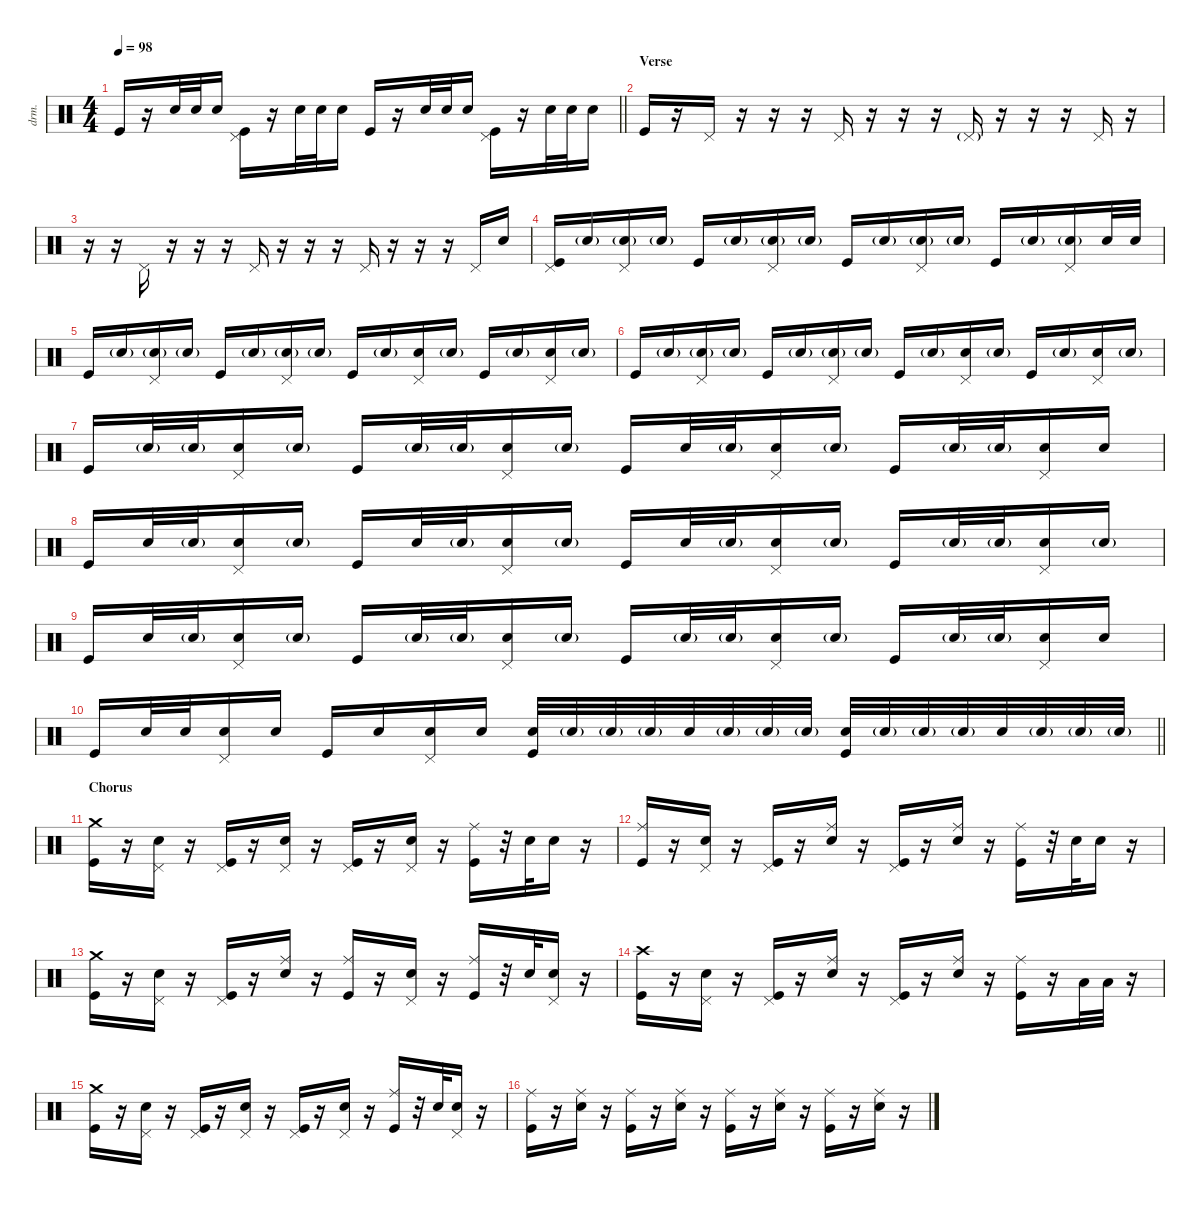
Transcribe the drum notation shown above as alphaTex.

\defaultSystemsLayout 4
\hideDynamics
\bracketExtendMode nobrackets
\otherSystemsTrackNameOrientation horizontal
\track ("Duris Maxwell" "drm.") {instrument percussion}
\staff {score}
\articulation defaults
\ts (4 4)
\tempo 98
\clef neutral
\barLineRight lightlight
\ks c "Kick (hit)".16{dy f beam Up}
r.16{beam Up} "Snare (hit) 2".32{beam Up} "Snare (hit) 2".32{beam Up} "Snare (hit) 2".16{beam Up} ("Pedal Hi-Hat (hit)" "Kick (hit)").16{beam Down} r.16{beam Down} "Snare (hit) 2".32{beam Down} "Snare (hit) 2".32{beam Down} "Snare (hit) 2".16{beam Down} "Kick (hit)".16{beam Up} r.16{beam Up} "Snare (hit) 2".32{beam Up} "Snare (hit) 2".32{beam Up} "Snare (hit) 2".16{beam Up} ("Pedal Hi-Hat (hit)" "Kick (hit)").16{beam Down} r.16{beam Down} "Snare (hit) 2".32{beam Down} "Snare (hit) 2".32{beam Down} "Snare (hit) 2".16{beam Down} |
\section ("" "Verse")
"Kick (hit)".16{beam Up} r.16{beam Up} "Pedal Hi-Hat (hit)".16{beam Up} r.16{beam Up} r.16{beam Up} r.16{beam Up} "Pedal Hi-Hat (hit)".16{beam Up} r.16{beam Up} r.16{beam Up} r.16{beam Up} "Pedal Hi-Hat (hit)"{g}.16{beam Up} r.16{beam Up} r.16{beam Up} r.16{beam Up} "Pedal Hi-Hat (hit)".16{beam Up} r.16{beam Up} |
r.16{beam Down} r.16{beam Down} "Pedal Hi-Hat (hit)".16{beam Up} r.16{beam Up} r.16{beam Up} r.16{beam Up} "Pedal Hi-Hat (hit)".16{beam Up} r.16{beam Up} r.16{beam Up} r.16{beam Up} "Pedal Hi-Hat (hit)".16{beam Up} r.16{beam Up} r.16{beam Up} r.16{beam Up} "Pedal Hi-Hat (hit)".16{beam Up} "Snare (hit) 2".16{beam Up} |
("Pedal Hi-Hat (hit)" "Kick (hit)").16{beam Up} "Snare (hit) 2"{g}.16{beam Up} ("Pedal Hi-Hat (hit)" "Snare (hit) 2"{g}).16{beam Up} "Snare (hit) 2"{g}.16{beam Up} "Kick (hit)".16{beam Up} "Snare (hit) 2"{g}.16{beam Up} ("Pedal Hi-Hat (hit)" "Snare (hit) 2"{g}).16{beam Up} "Snare (hit) 2"{g}.16{beam Up} "Kick (hit)".16{beam Up} "Snare (hit) 2"{g}.16{beam Up} ("Pedal Hi-Hat (hit)" "Snare (hit) 2"{g}).16{beam Up} "Snare (hit) 2"{g}.16{beam Up} "Kick (hit)".16{beam Up} "Snare (hit) 2"{g}.16{beam Up} ("Pedal Hi-Hat (hit)" "Snare (hit) 2"{g}).16{beam Up} "Snare (hit) 2".32{beam Up} "Snare (hit) 2".32{beam Up} |
"Kick (hit)".16{beam Up} "Snare (hit) 2"{g}.16{beam Up} ("Pedal Hi-Hat (hit)" "Snare (hit) 2"{g}).16{beam Up} "Snare (hit) 2"{g}.16{beam Up} "Kick (hit)".16{beam Up} "Snare (hit) 2"{g}.16{beam Up} ("Pedal Hi-Hat (hit)" "Snare (hit) 2"{g}).16{beam Up} "Snare (hit) 2"{g}.16{beam Up} "Kick (hit)".16{beam Up} "Snare (hit) 2"{g}.16{beam Up} ("Pedal Hi-Hat (hit)" "Snare (hit) 2").16{beam Up} "Snare (hit) 2"{g}.16{beam Up} "Kick (hit)".16{beam Up} "Snare (hit) 2"{g}.16{beam Up} ("Pedal Hi-Hat (hit)" "Snare (hit) 2").16{beam Up} "Snare (hit) 2"{g}.16{beam Up} |
"Kick (hit)".16{beam Up} "Snare (hit) 2"{g}.16{beam Up} ("Pedal Hi-Hat (hit)" "Snare (hit) 2"{g}).16{beam Up} "Snare (hit) 2"{g}.16{beam Up} "Kick (hit)".16{beam Up} "Snare (hit) 2"{g}.16{beam Up} ("Pedal Hi-Hat (hit)" "Snare (hit) 2"{g}).16{beam Up} "Snare (hit) 2"{g}.16{beam Up} "Kick (hit)".16{beam Up} "Snare (hit) 2"{g}.16{beam Up} ("Pedal Hi-Hat (hit)" "Snare (hit) 2").16{beam Up} "Snare (hit) 2"{g}.16{beam Up} "Kick (hit)".16{beam Up} "Snare (hit) 2"{g}.16{beam Up} ("Pedal Hi-Hat (hit)" "Snare (hit) 2").16{beam Up} "Snare (hit) 2"{g}.16{beam Up} |
"Kick (hit)".16{beam Up} "Snare (hit) 2"{g}.32{beam Up} "Snare (hit) 2"{g}.32{beam Up} ("Pedal Hi-Hat (hit)" "Snare (hit) 2").16{beam Up} "Snare (hit) 2"{g}.16{beam Up} "Kick (hit)".16{beam Up} "Snare (hit) 2"{g}.32{beam Up} "Snare (hit) 2"{g}.32{beam Up} ("Pedal Hi-Hat (hit)" "Snare (hit) 2").16{beam Up} "Snare (hit) 2"{g}.16{beam Up} "Kick (hit)".16{beam Up} "Snare (hit) 2".32{beam Up} "Snare (hit) 2"{g}.32{beam Up} ("Pedal Hi-Hat (hit)" "Snare (hit) 2").16{beam Up} "Snare (hit) 2"{g}.16{beam Up} "Kick (hit)".16{beam Up} "Snare (hit) 2"{g}.32{beam Up} "Snare (hit) 2"{g}.32{beam Up} ("Pedal Hi-Hat (hit)" "Snare (hit) 2").16{beam Up} "Snare (hit) 2".16{beam Up} |
"Kick (hit)".16{beam Up} "Snare (hit) 2".32{beam Up} "Snare (hit) 2"{g}.32{beam Up} ("Pedal Hi-Hat (hit)" "Snare (hit) 2").16{beam Up} "Snare (hit) 2"{g}.16{beam Up} "Kick (hit)".16{beam Up} "Snare (hit) 2".32{beam Up} "Snare (hit) 2"{g}.32{beam Up} ("Pedal Hi-Hat (hit)" "Snare (hit) 2").16{beam Up} "Snare (hit) 2"{g}.16{beam Up} "Kick (hit)".16{beam Up} "Snare (hit) 2".32{beam Up} "Snare (hit) 2"{g}.32{beam Up} ("Pedal Hi-Hat (hit)" "Snare (hit) 2").16{beam Up} "Snare (hit) 2"{g}.16{beam Up} "Kick (hit)".16{beam Up} "Snare (hit) 2"{g}.32{beam Up} "Snare (hit) 2"{g}.32{beam Up} ("Pedal Hi-Hat (hit)" "Snare (hit) 2").16{beam Up} "Snare (hit) 2"{g}.16{beam Up} |
"Kick (hit)".16{beam Up} "Snare (hit) 2".32{beam Up} "Snare (hit) 2"{g}.32{beam Up} ("Pedal Hi-Hat (hit)" "Snare (hit) 2").16{beam Up} "Snare (hit) 2"{g}.16{beam Up} "Kick (hit)".16{beam Up} "Snare (hit) 2"{g}.32{beam Up} "Snare (hit) 2"{g}.32{beam Up} ("Pedal Hi-Hat (hit)" "Snare (hit) 2").16{beam Up} "Snare (hit) 2"{g}.16{beam Up} "Kick (hit)".16{beam Up} "Snare (hit) 2"{g}.32{beam Up} "Snare (hit) 2"{g}.32{beam Up} ("Pedal Hi-Hat (hit)" "Snare (hit) 2").16{beam Up} "Snare (hit) 2"{g}.16{beam Up} "Kick (hit)".16{beam Up} "Snare (hit) 2"{g}.32{beam Up} "Snare (hit) 2"{g}.32{beam Up} ("Pedal Hi-Hat (hit)" "Snare (hit) 2").16{beam Up} "Snare (hit) 2".16{beam Up} |
\barLineRight lightlight "Kick (hit)".16{beam Up} "Snare (hit) 2".32{beam Up} "Snare (hit) 2".32{beam Up}
("Pedal Hi-Hat (hit)" "Snare (hit) 2").16{beam Up} "Snare (hit) 2".16{beam Up} "Kick (hit)".16{beam Up} "Snare (hit) 2".16{beam Up} ("Pedal Hi-Hat (hit)" "Snare (hit) 2").16{beam Up} "Snare (hit) 2".16{beam Up} ("Snare (hit) 2" "Kick (hit)").32{beam Up} "Snare (hit) 2"{g}.32{beam Up} "Snare (hit) 2"{g}.32{beam Up} "Snare (hit) 2"{g}.32{beam Up} "Snare (hit) 2".32{beam Up} "Snare (hit) 2"{g}.32{beam Up} "Snare (hit) 2"{g}.32{beam Up} "Snare (hit) 2"{g}.32{beam Up} ("Snare (hit) 2" "Kick (hit)").32{beam Up} "Snare (hit) 2"{g}.32{beam Up} "Snare (hit) 2"{g}.32{beam Up} "Snare (hit) 2"{g}.32{beam Up} "Snare (hit) 2".32{beam Up} "Snare (hit) 2"{g}.32{beam Up} "Snare (hit) 2"{g}.32{beam Up} "Snare (hit) 2"{g}.32{beam Up} |
\section ("" "Chorus")
("Crash medium (hit)" "Kick (hit)").16{beam Down} r.16{beam Down} ("Pedal Hi-Hat (hit)" "Snare (hit) 2").16{beam Down} r.16{beam Down} ("Pedal Hi-Hat (hit)" "Kick (hit)").16{beam Up} r.16{beam Up} ("Pedal Hi-Hat (hit)" "Snare (hit) 2").16{beam Up} r.16{beam Up} ("Pedal Hi-Hat (hit)" "Kick (hit)").16{beam Up} r.16{beam Up} ("Pedal Hi-Hat (hit)" "Snare (hit) 2").16{beam Up} r.16{beam Up} ("Ride (middle)" "Kick (hit)").16{beam Down} r.32{beam Down} "Snare (hit) 2".32{beam Down} "Snare (hit) 2".16{beam Down} r.16{beam Down} |
("Ride (middle)" "Kick (hit)").16{beam Up} r.16{beam Up} ("Pedal Hi-Hat (hit)" "Snare (hit) 2").16{beam Up} r.16{beam Up} ("Pedal Hi-Hat (hit)" "Kick (hit)").16{beam Up} r.16{beam Up} ("Ride (middle)" "Snare (hit) 2").16{beam Up} r.16{beam Up} ("Pedal Hi-Hat (hit)" "Kick (hit)").16{beam Up} r.16{beam Up} ("Ride (middle)" "Snare (hit) 2").16{beam Up} r.16{beam Up} ("Ride (middle)" "Kick (hit)").16{beam Down} r.32{beam Down} "Snare (hit) 2".32{beam Down} "Snare (hit) 2".16{beam Down} r.16{beam Down} |
("Crash medium (hit)" "Kick (hit)").16{beam Down} r.16{beam Down} ("Pedal Hi-Hat (hit)" "Snare (hit) 2").16{beam Down} r.16{beam Down} ("Pedal Hi-Hat (hit)" "Kick (hit)").16{beam Up} r.16{beam Up} ("Ride (middle)" "Snare (hit) 2").16{beam Up} r.16{beam Up} ("Ride (middle)" "Kick (hit)").16{beam Up} r.16{beam Up} ("Pedal Hi-Hat (hit)" "Snare (hit) 2").16{beam Up} r.16{beam Up} ("Ride (middle)" "Kick (hit)").16{beam Up} r.32{beam Up} "Snare (hit) 2".32{beam Up} ("Pedal Hi-Hat (hit)" "Snare (hit) 2").16{beam Up} r.16{beam Up} |
("Crash high (hit)" "Kick (hit)").16{beam Down} r.16{beam Down} ("Pedal Hi-Hat (hit)" "Snare (hit) 2").16{beam Down} r.16{beam Down} ("Pedal Hi-Hat (hit)" "Kick (hit)").16{beam Up} r.16{beam Up} ("Ride (middle)" "Snare (hit) 2").16{beam Up} r.16{beam Up} ("Pedal Hi-Hat (hit)" "Kick (hit)").16{beam Up} r.16{beam Up} ("Ride (middle)" "Snare (hit) 2").16{beam Up} r.16{beam Up} ("Ride (middle)" "Kick (hit)").16{beam Down} r.16{beam Down} "Low Tom (hit)".32{beam Down} "Low Tom (hit)".32{beam Down} r.16{beam Down} |
("Crash medium (hit)" "Kick (hit)").16{beam Down} r.16{beam Down} ("Pedal Hi-Hat (hit)" "Snare (hit) 2").16{beam Down} r.16{beam Down} ("Pedal Hi-Hat (hit)" "Kick (hit)").16{beam Up} r.16{beam Up} ("Pedal Hi-Hat (hit)" "Snare (hit) 2").16{beam Up} r.16{beam Up} ("Pedal Hi-Hat (hit)" "Kick (hit)").16{beam Up} r.16{beam Up} ("Pedal Hi-Hat (hit)" "Snare (hit) 2").16{beam Up} r.16{beam Up} ("Ride (middle)" "Kick (hit)").16{beam Up} r.32{beam Up} "Snare (hit) 2".32{beam Up} ("Pedal Hi-Hat (hit)" "Snare (hit) 2").16{beam Up} r.16{beam Up} |
("Ride (middle)" "Kick (hit)").16{beam Down} r.16{beam Down} ("Ride (middle)" "Snare (hit) 2").16{beam Down} r.16{beam Down} ("Ride (middle)" "Kick (hit)").16{beam Down} r.16{beam Down} ("Ride (middle)" "Snare (hit) 2").16{beam Down} r.16{beam Down} ("Ride (middle)" "Kick (hit)").16{beam Down} r.16{beam Down} ("Ride (middle)" "Snare (hit) 2").16{beam Down} r.16{beam Down} ("Ride (middle)" "Kick (hit)").16{beam Down} r.16{beam Down} ("Ride (middle)" "Snare (hit) 2").16{beam Down} r.16{beam Down}
